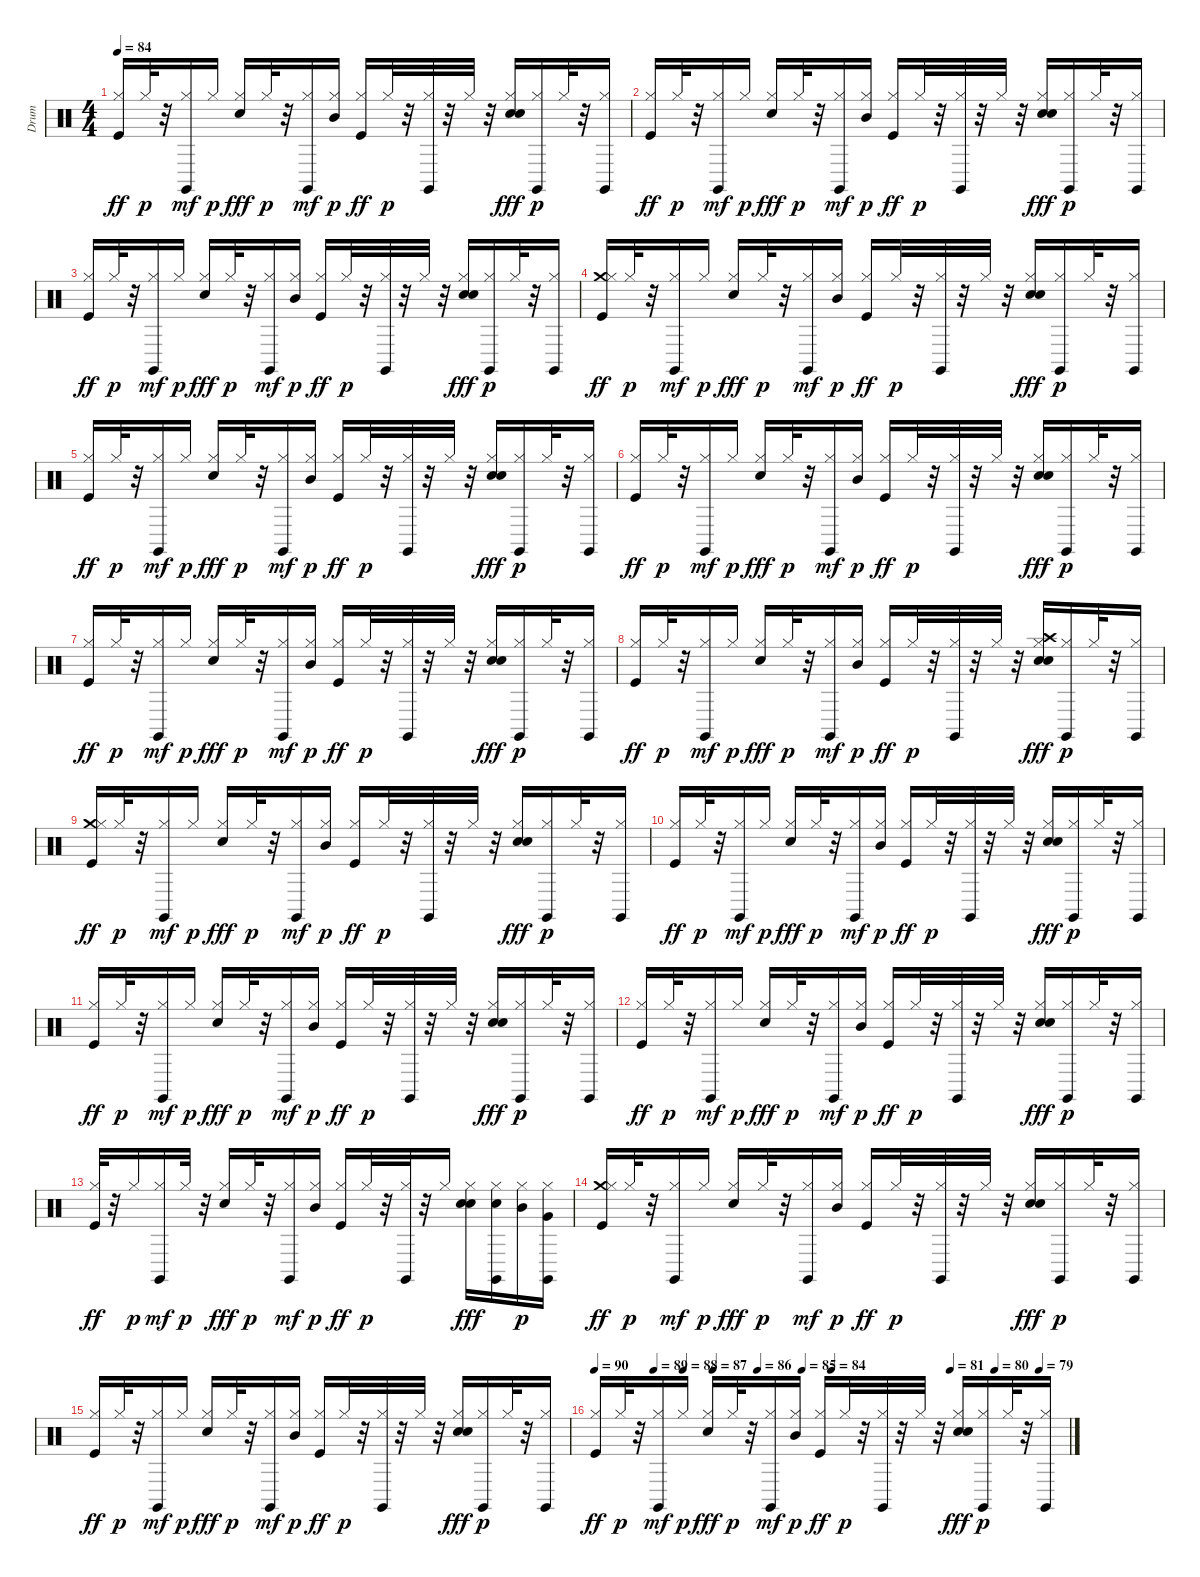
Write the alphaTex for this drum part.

\track ("Drum" "Drum") {instrument percussion}
\staff {score}
\articulation defaults
\ts (4 4)
\tempo 84
\clef neutral
\ks c
("Kick (hit)" "Hi-Hat (closed)").16{dy ff} "Hi-Hat (closed)".32{dy p} r.32 ("Hi-Hat (closed)" "Claves (hit)").16{dy mf} "Hi-Hat (closed)".16{dy p} ("Hi-Hat (closed)" "Snare (hit) 2").16{dy fff} "Hi-Hat (closed)".32{dy p} r.32 ("Hi-Hat (closed)" "Claves (hit)").16{dy mf} ("Hi-Hat (closed)" "Mid Tom (hit)").16{dy p} ("Kick (hit)" "Hi-Hat (closed)").16{dy ff} "Hi-Hat (closed)".32{dy p} r.32 ("Hi-Hat (closed)" "Claves (hit)").32 r.32 "Hi-Hat (closed)".32 r.32 ("Hi-Hat (closed)" "Snare (hit) 2" "Hand Clap (hit)").16{dy fff} ("Hi-Hat (closed)" "Claves (hit)").16{dy p} "Hi-Hat (closed)".32 r.32 ("Hi-Hat (closed)" "Claves (hit)").16 |
("Kick (hit)" "Hi-Hat (closed)").16{dy ff} "Hi-Hat (closed)".32{dy p} r.32 ("Hi-Hat (closed)" "Claves (hit)").16{dy mf} "Hi-Hat (closed)".16{dy p} ("Hi-Hat (closed)" "Snare (hit) 2").16{dy fff} "Hi-Hat (closed)".32{dy p} r.32 ("Hi-Hat (closed)" "Claves (hit)").16{dy mf} ("Hi-Hat (closed)" "Mid Tom (hit)").16{dy p} ("Kick (hit)" "Hi-Hat (closed)").16{dy ff} "Hi-Hat (closed)".32{dy p} r.32 ("Hi-Hat (closed)" "Claves (hit)").32 r.32 "Hi-Hat (closed)".32 r.32 ("Hi-Hat (closed)" "Snare (hit) 2" "Hand Clap (hit)").16{dy fff} ("Hi-Hat (closed)" "Claves (hit)").16{dy p} "Hi-Hat (closed)".32 r.32 ("Hi-Hat (closed)" "Claves (hit)").16 |
("Kick (hit)" "Hi-Hat (closed)").16{dy ff} "Hi-Hat (closed)".32{dy p} r.32 ("Hi-Hat (closed)" "Claves (hit)").16{dy mf} "Hi-Hat (closed)".16{dy p} ("Hi-Hat (closed)" "Snare (hit) 2").16{dy fff} "Hi-Hat (closed)".32{dy p} r.32 ("Hi-Hat (closed)" "Claves (hit)").16{dy mf} ("Hi-Hat (closed)" "Mid Tom (hit)").16{dy p} ("Kick (hit)" "Hi-Hat (closed)").16{dy ff} "Hi-Hat (closed)".32{dy p} r.32 ("Hi-Hat (closed)" "Claves (hit)").32 r.32 "Hi-Hat (closed)".32 r.32 ("Hi-Hat (closed)" "Snare (hit) 2" "Hand Clap (hit)").16{dy fff} ("Hi-Hat (closed)" "Claves (hit)").16{dy p} "Hi-Hat (closed)".32 r.32 ("Hi-Hat (closed)" "Claves (hit)").16 |
("Crash medium (hit)" "Kick (hit)" "Hi-Hat (closed)").16{dy ff} "Hi-Hat (closed)".32{dy p} r.32 ("Hi-Hat (closed)" "Claves (hit)").16{dy mf} "Hi-Hat (closed)".16{dy p} ("Hi-Hat (closed)" "Snare (hit) 2").16{dy fff} "Hi-Hat (closed)".32{dy p} r.32 ("Hi-Hat (closed)" "Claves (hit)").16{dy mf} ("Hi-Hat (closed)" "Mid Tom (hit)").16{dy p} ("Kick (hit)" "Hi-Hat (closed)").16{dy ff} "Hi-Hat (closed)".32{dy p} r.32 ("Hi-Hat (closed)" "Claves (hit)").32 r.32 "Hi-Hat (closed)".32 r.32 ("Hi-Hat (closed)" "Snare (hit) 2" "Hand Clap (hit)").16{dy fff} ("Hi-Hat (closed)" "Claves (hit)").16{dy p} "Hi-Hat (closed)".32 r.32 ("Hi-Hat (closed)" "Claves (hit)").16 |
("Kick (hit)" "Hi-Hat (closed)").16{dy ff} "Hi-Hat (closed)".32{dy p} r.32 ("Hi-Hat (closed)" "Claves (hit)").16{dy mf} "Hi-Hat (closed)".16{dy p} ("Hi-Hat (closed)" "Snare (hit) 2").16{dy fff} "Hi-Hat (closed)".32{dy p} r.32 ("Hi-Hat (closed)" "Claves (hit)").16{dy mf} ("Hi-Hat (closed)" "Mid Tom (hit)").16{dy p} ("Kick (hit)" "Hi-Hat (closed)").16{dy ff} "Hi-Hat (closed)".32{dy p} r.32 ("Hi-Hat (closed)" "Claves (hit)").32 r.32 "Hi-Hat (closed)".32 r.32 ("Hi-Hat (closed)" "Snare (hit) 2" "Hand Clap (hit)").16{dy fff} ("Hi-Hat (closed)" "Claves (hit)").16{dy p} "Hi-Hat (closed)".32 r.32 ("Hi-Hat (closed)" "Claves (hit)").16 |
("Kick (hit)" "Hi-Hat (closed)").16{dy ff} "Hi-Hat (closed)".32{dy p} r.32 ("Hi-Hat (closed)" "Claves (hit)").16{dy mf} "Hi-Hat (closed)".16{dy p} ("Hi-Hat (closed)" "Snare (hit) 2").16{dy fff} "Hi-Hat (closed)".32{dy p} r.32 ("Hi-Hat (closed)" "Claves (hit)").16{dy mf} ("Hi-Hat (closed)" "Mid Tom (hit)").16{dy p} ("Kick (hit)" "Hi-Hat (closed)").16{dy ff} "Hi-Hat (closed)".32{dy p} r.32 ("Hi-Hat (closed)" "Claves (hit)").32 r.32 "Hi-Hat (closed)".32 r.32 ("Hi-Hat (closed)" "Snare (hit) 2" "Hand Clap (hit)").16{dy fff} ("Hi-Hat (closed)" "Claves (hit)").16{dy p} "Hi-Hat (closed)".32 r.32 ("Hi-Hat (closed)" "Claves (hit)").16 |
("Kick (hit)" "Hi-Hat (closed)").16{dy ff} "Hi-Hat (closed)".32{dy p} r.32 ("Hi-Hat (closed)" "Claves (hit)").16{dy mf} "Hi-Hat (closed)".16{dy p} ("Hi-Hat (closed)" "Snare (hit) 2").16{dy fff} "Hi-Hat (closed)".32{dy p} r.32 ("Hi-Hat (closed)" "Claves (hit)").16{dy mf} ("Hi-Hat (closed)" "Mid Tom (hit)").16{dy p} ("Kick (hit)" "Hi-Hat (closed)").16{dy ff} "Hi-Hat (closed)".32{dy p} r.32 ("Hi-Hat (closed)" "Claves (hit)").32 r.32 "Hi-Hat (closed)".32 r.32 ("Hi-Hat (closed)" "Snare (hit) 2" "Hand Clap (hit)").16{dy fff} ("Hi-Hat (closed)" "Claves (hit)").16{dy p} "Hi-Hat (closed)".32 r.32 ("Hi-Hat (closed)" "Claves (hit)").16 |
("Kick (hit)" "Hi-Hat (closed)").16{dy ff} "Hi-Hat (closed)".32{dy p} r.32 ("Hi-Hat (closed)" "Claves (hit)").16{dy mf} "Hi-Hat (closed)".16{dy p} ("Hi-Hat (closed)" "Snare (hit) 2").16{dy fff} "Hi-Hat (closed)".32{dy p} r.32 ("Hi-Hat (closed)" "Claves (hit)").16{dy mf} ("Hi-Hat (closed)" "Mid Tom (hit)").16{dy p} ("Kick (hit)" "Hi-Hat (closed)").16{dy ff} "Hi-Hat (closed)".32{dy p} r.32 ("Hi-Hat (closed)" "Claves (hit)").32 r.32 "Hi-Hat (closed)".32 r.32 ("Crash high (hit)" "Hi-Hat (closed)" "Snare (hit) 2" "Hand Clap (hit)").16{dy fff} ("Hi-Hat (closed)" "Claves (hit)").16{dy p} "Hi-Hat (closed)".32 r.32 ("Hi-Hat (closed)" "Claves (hit)").16 |
("Crash medium (hit)" "Kick (hit)" "Hi-Hat (closed)").16{dy ff} "Hi-Hat (closed)".32{dy p} r.32 ("Hi-Hat (closed)" "Claves (hit)").16{dy mf} "Hi-Hat (closed)".16{dy p} ("Hi-Hat (closed)" "Snare (hit) 2").16{dy fff} "Hi-Hat (closed)".32{dy p} r.32 ("Hi-Hat (closed)" "Claves (hit)").16{dy mf} ("Hi-Hat (closed)" "Mid Tom (hit)").16{dy p} ("Kick (hit)" "Hi-Hat (closed)").16{dy ff} "Hi-Hat (closed)".32{dy p} r.32 ("Hi-Hat (closed)" "Claves (hit)").32 r.32 "Hi-Hat (closed)".32 r.32 ("Hi-Hat (closed)" "Snare (hit) 2" "Hand Clap (hit)").16{dy fff} ("Hi-Hat (closed)" "Claves (hit)").16{dy p} "Hi-Hat (closed)".32 r.32 ("Hi-Hat (closed)" "Claves (hit)").16 |
("Kick (hit)" "Hi-Hat (closed)").16{dy ff} "Hi-Hat (closed)".32{dy p} r.32 ("Hi-Hat (closed)" "Claves (hit)").16{dy mf} "Hi-Hat (closed)".16{dy p} ("Hi-Hat (closed)" "Snare (hit) 2").16{dy fff} "Hi-Hat (closed)".32{dy p} r.32 ("Hi-Hat (closed)" "Claves (hit)").16{dy mf} ("Hi-Hat (closed)" "Mid Tom (hit)").16{dy p} ("Kick (hit)" "Hi-Hat (closed)").16{dy ff} "Hi-Hat (closed)".32{dy p} r.32 ("Hi-Hat (closed)" "Claves (hit)").32 r.32 "Hi-Hat (closed)".32 r.32 ("Hi-Hat (closed)" "Snare (hit) 2" "Hand Clap (hit)").16{dy fff} ("Hi-Hat (closed)" "Claves (hit)").16{dy p} "Hi-Hat (closed)".32 r.32 ("Hi-Hat (closed)" "Claves (hit)").16 |
("Kick (hit)" "Hi-Hat (closed)").16{dy ff} "Hi-Hat (closed)".32{dy p} r.32 ("Hi-Hat (closed)" "Claves (hit)").16{dy mf} "Hi-Hat (closed)".16{dy p} ("Hi-Hat (closed)" "Snare (hit) 2").16{dy fff} "Hi-Hat (closed)".32{dy p} r.32 ("Hi-Hat (closed)" "Claves (hit)").16{dy mf} ("Hi-Hat (closed)" "Mid Tom (hit)").16{dy p} ("Kick (hit)" "Hi-Hat (closed)").16{dy ff} "Hi-Hat (closed)".32{dy p} r.32 ("Hi-Hat (closed)" "Claves (hit)").32 r.32 "Hi-Hat (closed)".32 r.32 ("Hi-Hat (closed)" "Snare (hit) 2" "Hand Clap (hit)").16{dy fff} ("Hi-Hat (closed)" "Claves (hit)").16{dy p} "Hi-Hat (closed)".32 r.32 ("Hi-Hat (closed)" "Claves (hit)").16 |
("Kick (hit)" "Hi-Hat (closed)").16{dy ff} "Hi-Hat (closed)".32{dy p} r.32 ("Hi-Hat (closed)" "Claves (hit)").16{dy mf} "Hi-Hat (closed)".16{dy p} ("Hi-Hat (closed)" "Snare (hit) 2").16{dy fff} "Hi-Hat (closed)".32{dy p} r.32 ("Hi-Hat (closed)" "Claves (hit)").16{dy mf} ("Hi-Hat (closed)" "Mid Tom (hit)").16{dy p} ("Kick (hit)" "Hi-Hat (closed)").16{dy ff} "Hi-Hat (closed)".32{dy p} r.32 ("Hi-Hat (closed)" "Claves (hit)").32 r.32 "Hi-Hat (closed)".32 r.32 ("Hi-Hat (closed)" "Snare (hit) 2" "Hand Clap (hit)").16{dy fff} ("Hi-Hat (closed)" "Claves (hit)").16{dy p} "Hi-Hat (closed)".32 r.32 ("Hi-Hat (closed)" "Claves (hit)").16 |
("Kick (hit)" "Hi-Hat (closed)").32{dy ff} r.32 "Hi-Hat (closed)".16{dy p} ("Hi-Hat (closed)" "Claves (hit)").16{dy mf} "Hi-Hat (closed)".32{dy p} r.32 ("Hi-Hat (closed)" "Snare (hit) 2").16{dy fff} "Hi-Hat (closed)".32{dy p} r.32 ("Hi-Hat (closed)" "Claves (hit)").16{dy mf} ("Hi-Hat (closed)" "Mid Tom (hit)").16{dy p} ("Kick (hit)" "Hi-Hat (closed)").16{dy ff} "Hi-Hat (closed)".32{dy p} r.32 ("Hi-Hat (closed)" "Claves (hit)").32 r.32 "Hi-Hat (closed)".16 ("Hi-Hat (closed)" "Snare (hit) 2" "Hand Clap (hit)").16{dy fff} ("Hi-Hat (closed)" "Snare (hit) 2" "Claves (hit)").16 ("Hi-Hat (closed)" "Mid Tom (hit)").16{dy p} ("Hi-Hat (closed)" "Claves (hit)" "Very Low Tom (hit)").16 |
("Crash medium (hit)" "Kick (hit)" "Hi-Hat (closed)").16{dy ff} "Hi-Hat (closed)".32{dy p} r.32 ("Hi-Hat (closed)" "Claves (hit)").16{dy mf} "Hi-Hat (closed)".16{dy p} ("Hi-Hat (closed)" "Snare (hit) 2").16{dy fff} "Hi-Hat (closed)".32{dy p} r.32 ("Hi-Hat (closed)" "Claves (hit)").16{dy mf} ("Hi-Hat (closed)" "Mid Tom (hit)").16{dy p} ("Kick (hit)" "Hi-Hat (closed)").16{dy ff} "Hi-Hat (closed)".32{dy p} r.32 ("Hi-Hat (closed)" "Claves (hit)").32 r.32 "Hi-Hat (closed)".32 r.32 ("Hi-Hat (closed)" "Snare (hit) 2" "Hand Clap (hit)").16{dy fff} ("Hi-Hat (closed)" "Claves (hit)").16{dy p} "Hi-Hat (closed)".32 r.32 ("Hi-Hat (closed)" "Claves (hit)").16 |
("Kick (hit)" "Hi-Hat (closed)").16{dy ff} "Hi-Hat (closed)".32{dy p} r.32 ("Hi-Hat (closed)" "Claves (hit)").16{dy mf} "Hi-Hat (closed)".16{dy p} ("Hi-Hat (closed)" "Snare (hit) 2").16{dy fff} "Hi-Hat (closed)".32{dy p} r.32 ("Hi-Hat (closed)" "Claves (hit)").16{dy mf} ("Hi-Hat (closed)" "Mid Tom (hit)").16{dy p} ("Kick (hit)" "Hi-Hat (closed)").16{dy ff} "Hi-Hat (closed)".32{dy p} r.32 ("Hi-Hat (closed)" "Claves (hit)").32 r.32 "Hi-Hat (closed)".32 r.32 ("Hi-Hat (closed)" "Snare (hit) 2" "Hand Clap (hit)").16{dy fff} ("Hi-Hat (closed)" "Claves (hit)").16{dy p} "Hi-Hat (closed)".32 r.32 ("Hi-Hat (closed)" "Claves (hit)").16 |
\tempo 90
\tempo (89 0.125)
\tempo (88 0.1875)
\tempo (87 0.25)
\tempo (86 0.34375)
\tempo (85 0.4375)
\tempo (84 0.5)
\tempo (81 0.75)
\tempo (80 0.84375)
\tempo (79 0.9375)
("Kick (hit)" "Hi-Hat (closed)").16{dy ff} "Hi-Hat (closed)".32{dy p} r.32 ("Hi-Hat (closed)" "Claves (hit)").16{dy mf} "Hi-Hat (closed)".16{dy p} ("Hi-Hat (closed)" "Snare (hit) 2").16{dy fff} "Hi-Hat (closed)".32{dy p} r.32 ("Hi-Hat (closed)" "Claves (hit)").16{dy mf} ("Hi-Hat (closed)" "Mid Tom (hit)").16{dy p} ("Kick (hit)" "Hi-Hat (closed)").16{dy ff} "Hi-Hat (closed)".32{dy p} r.32 ("Hi-Hat (closed)" "Claves (hit)").32 r.32 "Hi-Hat (closed)".32 r.32 ("Hi-Hat (closed)" "Snare (hit) 2" "Hand Clap (hit)").16{dy fff} ("Hi-Hat (closed)" "Claves (hit)").16{dy p} "Hi-Hat (closed)".32 r.32 ("Hi-Hat (closed)" "Claves (hit)").16
